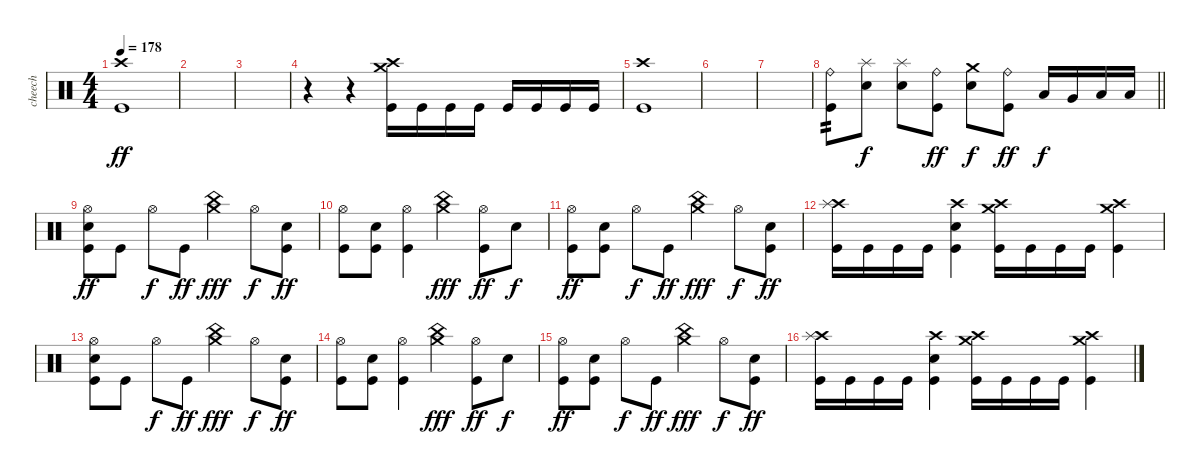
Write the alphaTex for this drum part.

\track ("cheech" "cheech") {solo instrument percussion}
\staff {score}
\articulation defaults
\ts (4 4)
\tempo 178
\clef neutral
\ks c
("Crash high (hit)" "Kick (hit)").1{dy ff} |
|
|
r.4 r.4 ("Crash high (hit)" "Crash medium (hit)" "Kick (hit)").16 "Kick (hit)".16 "Kick (hit)".16 "Kick (hit)".16 "Kick (hit)".16 "Kick (hit)".16 "Kick (hit)".16 "Kick (hit)".16 |
("Crash high (hit)" "Kick (hit)").1 |
|
|
\barLineRight lightlight
("Ride (bell)" "Kick (hit)").8{tp 2} ("Splash (hit)" "Electric Snare (hit)").8{dy f} ("Splash (hit)" "Electric Snare (hit)").8 ("Ride (bell)" "Kick (hit)").8{dy ff} ("Crash medium (hit)" "Electric Snare (hit)").8{dy f} ("Ride (bell)" "Kick (hit)").8{dy ff} "Low Tom (hit)".16{dy f} "Very Low Tom (hit)".16 "Low Floor Tom (hit)".16 "Low Floor Tom (hit)".16 |
("Hi-Hat (open)" "Electric Snare (hit)" "Kick (hit)").8{dy ff} "Kick (hit)".8 "Hi-Hat (open)".8{dy f} "Kick (hit)".8{dy ff} ("China (hit)" "Crash medium (hit)").4{dy fff} "Hi-Hat (open)".8{dy f} ("Electric Snare (hit)" "Kick (hit)").8{dy ff} |
("Hi-Hat (open)" "Kick (hit)").8 ("Electric Snare (hit)" "Kick (hit)").8 ("Hi-Hat (open)" "Kick (hit)").4 ("China (hit)" "Crash medium (hit)").4{dy fff} ("Hi-Hat (open)" "Kick (hit)").8{dy ff} "Electric Snare (hit)".8{dy f} |
("Hi-Hat (open)" "Kick (hit)").8{dy ff} ("Electric Snare (hit)" "Kick (hit)").8 "Hi-Hat (open)".8{dy f} "Kick (hit)".8{dy ff} ("China (hit)" "Crash medium (hit)").4{dy fff} "Hi-Hat (open)".8{dy f} ("Electric Snare (hit)" "Kick (hit)").8{dy ff} |
("Crash high (hit)" "Splash (hit)" "Kick (hit)").16 "Kick (hit)".16 "Kick (hit)".16 "Kick (hit)".16 ("Crash high (hit)" "Electric Snare (hit)" "Kick (hit)").4 ("Crash medium (hit)" "Crash high (hit)" "Kick (hit)").16 "Kick (hit)".16 "Kick (hit)".16 "Kick (hit)".16 ("Crash medium (hit)" "Crash high (hit)" "Kick (hit)").4 |
("Hi-Hat (open)" "Electric Snare (hit)" "Kick (hit)").8 "Kick (hit)".8 "Hi-Hat (open)".8{dy f} "Kick (hit)".8{dy ff} ("China (hit)" "Crash medium (hit)").4{dy fff} "Hi-Hat (open)".8{dy f} ("Electric Snare (hit)" "Kick (hit)").8{dy ff} |
("Hi-Hat (open)" "Kick (hit)").8 ("Electric Snare (hit)" "Kick (hit)").8 ("Hi-Hat (open)" "Kick (hit)").4 ("China (hit)" "Crash medium (hit)").4{dy fff} ("Hi-Hat (open)" "Kick (hit)").8{dy ff} "Electric Snare (hit)".8{dy f} |
("Hi-Hat (open)" "Kick (hit)").8{dy ff} ("Electric Snare (hit)" "Kick (hit)").8 "Hi-Hat (open)".8{dy f} "Kick (hit)".8{dy ff} ("China (hit)" "Crash medium (hit)").4{dy fff} "Hi-Hat (open)".8{dy f} ("Electric Snare (hit)" "Kick (hit)").8{dy ff} |
("Crash high (hit)" "Splash (hit)" "Kick (hit)").16 "Kick (hit)".16 "Kick (hit)".16 "Kick (hit)".16 ("Crash high (hit)" "Electric Snare (hit)" "Kick (hit)").4 ("Crash medium (hit)" "Crash high (hit)" "Kick (hit)").16 "Kick (hit)".16 "Kick (hit)".16 "Kick (hit)".16 ("Crash medium (hit)" "Crash high (hit)" "Kick (hit)").4
